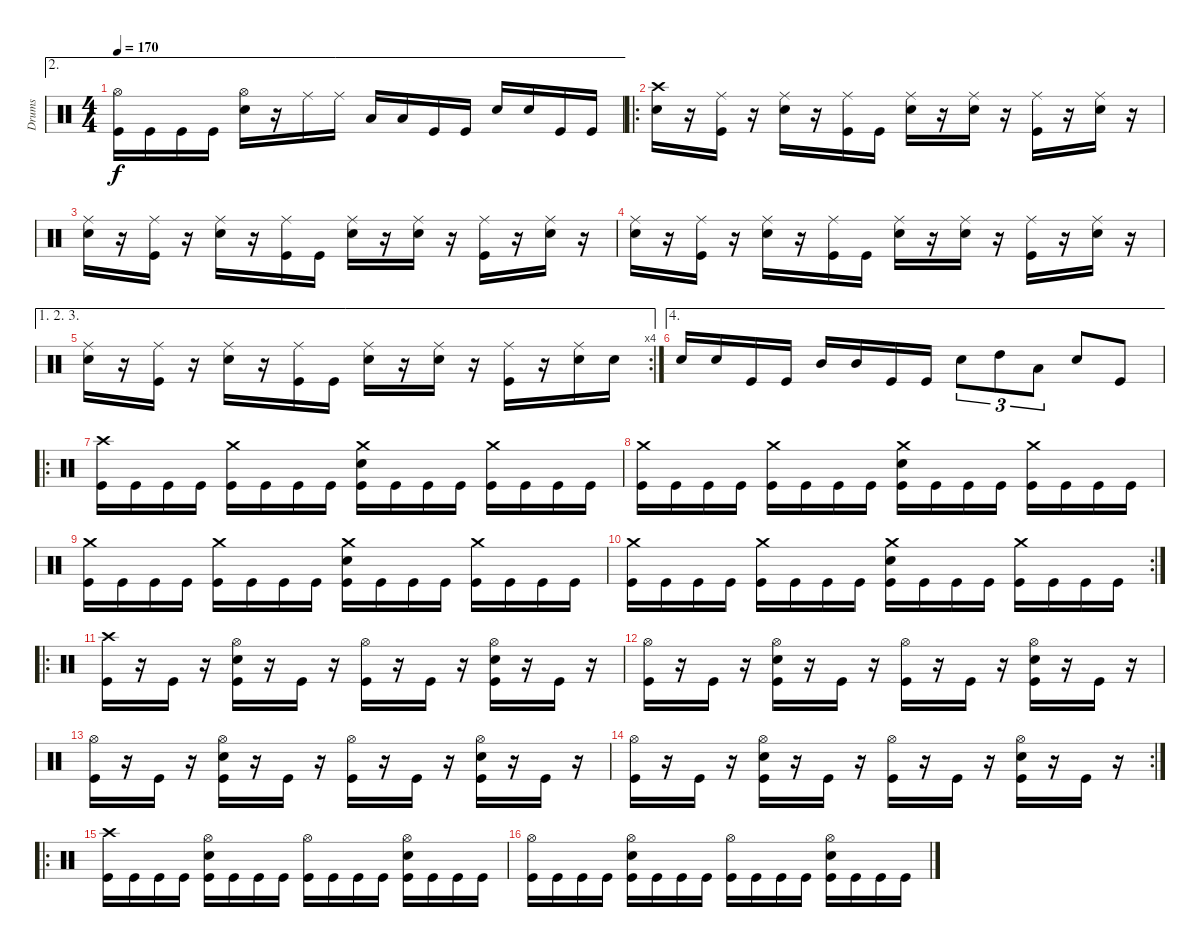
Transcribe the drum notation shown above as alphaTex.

\track ("Drums" "Drums") {instrument percussion}
\staff {score}
\articulation defaults
\ae 2
\ts (4 4)
\tempo 170
\clef neutral
\ks c
("Hi-Hat (open)" "Kick (hit)").16{dy f} "Kick (hit)".16 "Kick (hit)".16 "Kick (hit)".16 ("Hi-Hat (open)" "Snare (hit) 2").16 r.16 "Ride (middle)".16 "Ride (middle)".16 "Low Tom (hit)".16 "Low Tom (hit)".16 "Kick (hit)".16 "Kick (hit)".16 "Snare (hit) 2".16 "Snare (hit) 2".16 "Kick (hit)".16 "Kick (hit)".16 |
\ro
("Crash high (hit)" "Snare (hit) 2").16 r.16 ("Ride (middle)" "Kick (hit)").16 r.16 ("Ride (middle)" "Snare (hit) 2").16 r.16 ("Ride (middle)" "Kick (hit)").16 "Kick (hit)".16 ("Ride (middle)" "Snare (hit) 2").16 r.16 ("Ride (middle)" "Snare (hit) 2").16 r.16 ("Ride (middle)" "Kick (hit)").16 r.16 ("Ride (middle)" "Snare (hit) 2").16 r.16 |
("Ride (middle)" "Snare (hit) 2").16 r.16 ("Ride (middle)" "Kick (hit)").16 r.16 ("Ride (middle)" "Snare (hit) 2").16 r.16 ("Ride (middle)" "Kick (hit)").16 "Kick (hit)".16 ("Ride (middle)" "Snare (hit) 2").16 r.16 ("Ride (middle)" "Snare (hit) 2").16 r.16 ("Ride (middle)" "Kick (hit)").16 r.16 ("Ride (middle)" "Snare (hit) 2").16 r.16 |
("Ride (middle)" "Snare (hit) 2").16 r.16 ("Ride (middle)" "Kick (hit)").16 r.16 ("Ride (middle)" "Snare (hit) 2").16 r.16 ("Ride (middle)" "Kick (hit)").16 "Kick (hit)".16 ("Ride (middle)" "Snare (hit) 2").16 r.16 ("Ride (middle)" "Snare (hit) 2").16 r.16 ("Ride (middle)" "Kick (hit)").16 r.16 ("Ride (middle)" "Snare (hit) 2").16 r.16 |
\ae (1 2 3)
\rc 4
("Ride (middle)" "Snare (hit) 2").16 r.16 ("Ride (middle)" "Kick (hit)").16 r.16 ("Ride (middle)" "Snare (hit) 2").16 r.16 ("Ride (middle)" "Kick (hit)").16 "Kick (hit)".16 ("Ride (middle)" "Snare (hit) 2").16 r.16 ("Ride (middle)" "Snare (hit) 2").16 r.16 ("Ride (middle)" "Kick (hit)").16 r.16 ("Ride (middle)" "Snare (hit) 2").16 "Snare (hit) 2".16 |
\ae 4 "Snare (hit) 2".16 "Snare (hit) 2".16 "Kick (hit)".16 "Kick (hit)".16 "Mid Tom (hit)".16 "Mid Tom (hit)".16 "Kick (hit)".16 "Kick (hit)".16 "Snare (hit) 2".8{tu (3 2)} "High Tom (hit)".8{tu (3 2)} "Low Tom (hit)".8{tu (3 2)} "Snare (hit) 2".8 "Kick (hit)".8
|
\ro
("Crash high (hit)" "Kick (hit)").16 "Kick (hit)".16 "Kick (hit)".16 "Kick (hit)".16 ("Crash medium (hit)" "Kick (hit)").16 "Kick (hit)".16 "Kick (hit)".16 "Kick (hit)".16 ("Crash medium (hit)" "Snare (hit) 2" "Kick (hit)").16 "Kick (hit)".16 "Kick (hit)".16 "Kick (hit)".16 ("Crash medium (hit)" "Kick (hit)").16 "Kick (hit)".16 "Kick (hit)".16 "Kick (hit)".16 |
("Crash medium (hit)" "Kick (hit)").16 "Kick (hit)".16 "Kick (hit)".16 "Kick (hit)".16 ("Crash medium (hit)" "Kick (hit)").16 "Kick (hit)".16 "Kick (hit)".16 "Kick (hit)".16 ("Crash medium (hit)" "Snare (hit) 2" "Kick (hit)").16 "Kick (hit)".16 "Kick (hit)".16 "Kick (hit)".16 ("Crash medium (hit)" "Kick (hit)").16 "Kick (hit)".16 "Kick (hit)".16 "Kick (hit)".16 |
("Crash medium (hit)" "Kick (hit)").16 "Kick (hit)".16 "Kick (hit)".16 "Kick (hit)".16 ("Crash medium (hit)" "Kick (hit)").16 "Kick (hit)".16 "Kick (hit)".16 "Kick (hit)".16 ("Crash medium (hit)" "Snare (hit) 2" "Kick (hit)").16 "Kick (hit)".16 "Kick (hit)".16 "Kick (hit)".16 ("Crash medium (hit)" "Kick (hit)").16 "Kick (hit)".16 "Kick (hit)".16 "Kick (hit)".16 |
\rc 2
("Crash medium (hit)" "Kick (hit)").16 "Kick (hit)".16 "Kick (hit)".16 "Kick (hit)".16 ("Crash medium (hit)" "Kick (hit)").16 "Kick (hit)".16 "Kick (hit)".16 "Kick (hit)".16 ("Crash medium (hit)" "Snare (hit) 2" "Kick (hit)").16 "Kick (hit)".16 "Kick (hit)".16 "Kick (hit)".16 ("Crash medium (hit)" "Kick (hit)").16 "Kick (hit)".16 "Kick (hit)".16 "Kick (hit)".16 |
\ro
("Crash high (hit)" "Kick (hit)").16 r.16 "Kick (hit)".16 r.16 ("Hi-Hat (open)" "Snare (hit) 2" "Kick (hit)").16 r.16 "Kick (hit)".16 r.16 ("Hi-Hat (open)" "Kick (hit)").16 r.16 "Kick (hit)".16 r.16 ("Hi-Hat (open)" "Snare (hit) 2" "Kick (hit)").16 r.16 "Kick (hit)".16 r.16 |
("Hi-Hat (open)" "Kick (hit)").16 r.16 "Kick (hit)".16 r.16 ("Hi-Hat (open)" "Snare (hit) 2" "Kick (hit)").16 r.16 "Kick (hit)".16 r.16 ("Hi-Hat (open)" "Kick (hit)").16 r.16 "Kick (hit)".16 r.16 ("Hi-Hat (open)" "Snare (hit) 2" "Kick (hit)").16 r.16 "Kick (hit)".16 r.16 |
("Hi-Hat (open)" "Kick (hit)").16 r.16 "Kick (hit)".16 r.16 ("Hi-Hat (open)" "Snare (hit) 2" "Kick (hit)").16 r.16 "Kick (hit)".16 r.16 ("Hi-Hat (open)" "Kick (hit)").16 r.16 "Kick (hit)".16 r.16 ("Hi-Hat (open)" "Snare (hit) 2" "Kick (hit)").16 r.16 "Kick (hit)".16 r.16 |
\rc 2
("Hi-Hat (open)" "Kick (hit)").16 r.16 "Kick (hit)".16 r.16 ("Hi-Hat (open)" "Snare (hit) 2" "Kick (hit)").16 r.16 "Kick (hit)".16 r.16 ("Hi-Hat (open)" "Kick (hit)").16 r.16 "Kick (hit)".16 r.16 ("Hi-Hat (open)" "Snare (hit) 2" "Kick (hit)").16 r.16 "Kick (hit)".16 r.16 |
\ro
("Crash high (hit)" "Kick (hit)").16 "Kick (hit)".16 "Kick (hit)".16 "Kick (hit)".16 ("Hi-Hat (open)" "Snare (hit) 2" "Kick (hit)").16 "Kick (hit)".16 "Kick (hit)".16 "Kick (hit)".16 ("Hi-Hat (open)" "Kick (hit)").16 "Kick (hit)".16 "Kick (hit)".16 "Kick (hit)".16 ("Hi-Hat (open)" "Snare (hit) 2" "Kick (hit)").16 "Kick (hit)".16 "Kick (hit)".16 "Kick (hit)".16 |
("Hi-Hat (open)" "Kick (hit)").16 "Kick (hit)".16 "Kick (hit)".16 "Kick (hit)".16 ("Hi-Hat (open)" "Snare (hit) 2" "Kick (hit)").16 "Kick (hit)".16 "Kick (hit)".16 "Kick (hit)".16 ("Hi-Hat (open)" "Kick (hit)").16 "Kick (hit)".16 "Kick (hit)".16 "Kick (hit)".16 ("Hi-Hat (open)" "Snare (hit) 2" "Kick (hit)").16 "Kick (hit)".16 "Kick (hit)".16 "Kick (hit)".16
